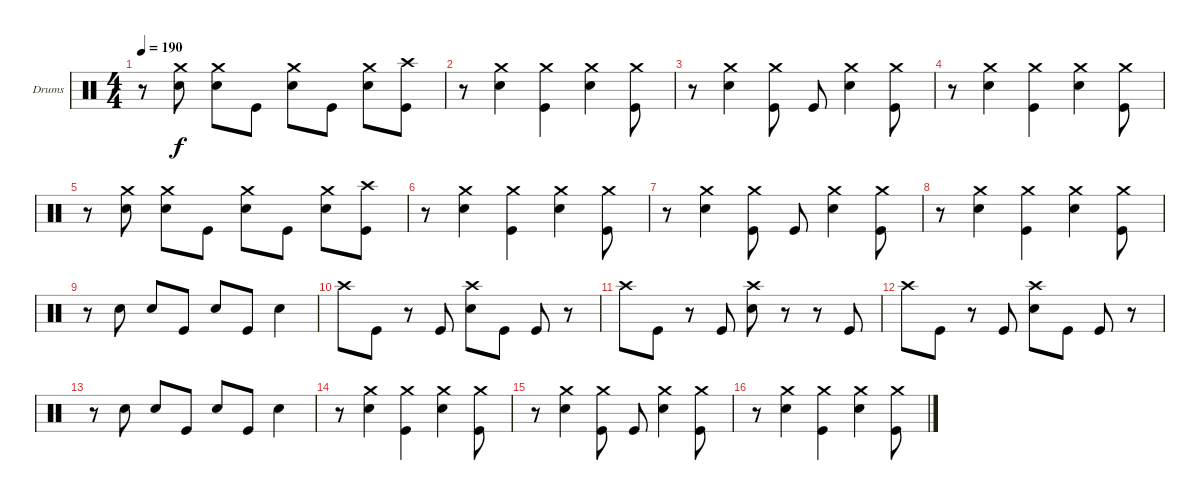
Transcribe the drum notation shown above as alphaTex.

\bracketExtendMode groupsimilarinstruments
\firstSystemTrackNameOrientation horizontal
\otherSystemsTrackNameOrientation horizontal
\track ("Drumkit" "Drums") {instrument percussion}
\staff {score}
\articulation defaults
\ts (4 4)
\tempo 190
\clef neutral
\scale
0.333333
\ks c
r.8{dy f} ("Snare (hit) 2" "Crash medium (hit)").8 ("Snare (hit) 2" "Crash medium (hit)").8 "Kick (hit)".8 ("Snare (hit) 2" "Crash medium (hit)").8 "Kick (hit)".8 ("Snare (hit) 2" "Crash medium (hit)").8 ("Kick (hit)" "Crash high (hit)").8 |
\scale
0.333333 r.8 ("Snare (hit) 2" "Crash medium (hit)").4 ("Kick (hit)" "Crash medium (hit)").4 ("Snare (hit) 2" "Crash medium (hit)").4 ("Kick (hit)" "Crash medium (hit)").8 |
\scale
0.333333 r.8 ("Snare (hit) 2" "Crash medium (hit)").4 ("Kick (hit)" "Crash medium (hit)").8 "Kick (hit)".8 ("Snare (hit) 2" "Crash medium (hit)").4 ("Kick (hit)" "Crash medium (hit)").8 |
\scale
0.333333 r.8 ("Snare (hit) 2" "Crash medium (hit)").4 ("Kick (hit)" "Crash medium (hit)").4 ("Snare (hit) 2" "Crash medium (hit)").4 ("Kick (hit)" "Crash medium (hit)").8 |
\scale
0.333333 r.8 ("Snare (hit) 2" "Crash medium (hit)").8 ("Snare (hit) 2" "Crash medium (hit)").8 "Kick (hit)".8 ("Snare (hit) 2" "Crash medium (hit)").8 "Kick (hit)".8 ("Snare (hit) 2" "Crash medium (hit)").8 ("Kick (hit)" "Crash high (hit)").8 |
\scale
0.333333 r.8 ("Snare (hit) 2" "Crash medium (hit)").4 ("Kick (hit)" "Crash medium (hit)").4 ("Snare (hit) 2" "Crash medium (hit)").4 ("Kick (hit)" "Crash medium (hit)").8 |
\scale
0.333333 r.8 ("Snare (hit) 2" "Crash medium (hit)").4 ("Kick (hit)" "Crash medium (hit)").8 "Kick (hit)".8 ("Snare (hit) 2" "Crash medium (hit)").4 ("Kick (hit)" "Crash medium (hit)").8 |
\scale
0.333333 r.8 ("Snare (hit) 2" "Crash medium (hit)").4 ("Kick (hit)" "Crash medium (hit)").4 ("Snare (hit) 2" "Crash medium (hit)").4 ("Kick (hit)" "Crash medium (hit)").8 |
\scale
0.333333 r.8 "Snare (hit) 2".8 "Snare (hit) 2".8 "Kick (hit)".8 "Snare (hit) 2".8 "Kick (hit)".8 "Snare (hit) 2".4 |
\scale
0.333333 "Crash high (hit)".8 "Kick (hit)".8 r.8 "Kick (hit)".8 ("Snare (hit) 2" "Crash high (hit)").8 "Kick (hit)".8 "Kick (hit)".8 r.8 |
"Crash high (hit)".8 "Kick (hit)".8 r.8 "Kick (hit)".8 ("Snare (hit) 2" "Crash high (hit)").8 r.8 r.8 "Kick (hit)".8 |
"Crash high (hit)".8 "Kick (hit)".8 r.8 "Kick (hit)".8 ("Snare (hit) 2" "Crash high (hit)").8 "Kick (hit)".8 "Kick (hit)".8 r.8 |
\scale
0.333333 r.8 "Snare (hit) 2".8 "Snare (hit) 2".8 "Kick (hit)".8 "Snare (hit) 2".8 "Kick (hit)".8 "Snare (hit) 2".4 |
\scale
0.333333 r.8 ("Snare (hit) 2" "Crash medium (hit)").4 ("Kick (hit)" "Crash medium (hit)").4 ("Snare (hit) 2" "Crash medium (hit)").4 ("Kick (hit)" "Crash medium (hit)").8 |
\scale
0.333333 r.8 ("Snare (hit) 2" "Crash medium (hit)").4 ("Kick (hit)" "Crash medium (hit)").8 "Kick (hit)".8 ("Snare (hit) 2" "Crash medium (hit)").4 ("Kick (hit)" "Crash medium (hit)").8 |
\scale
0.333333 r.8 ("Snare (hit) 2" "Crash medium (hit)").4 ("Kick (hit)" "Crash medium (hit)").4 ("Snare (hit) 2" "Crash medium (hit)").4 ("Kick (hit)" "Crash medium (hit)").8
